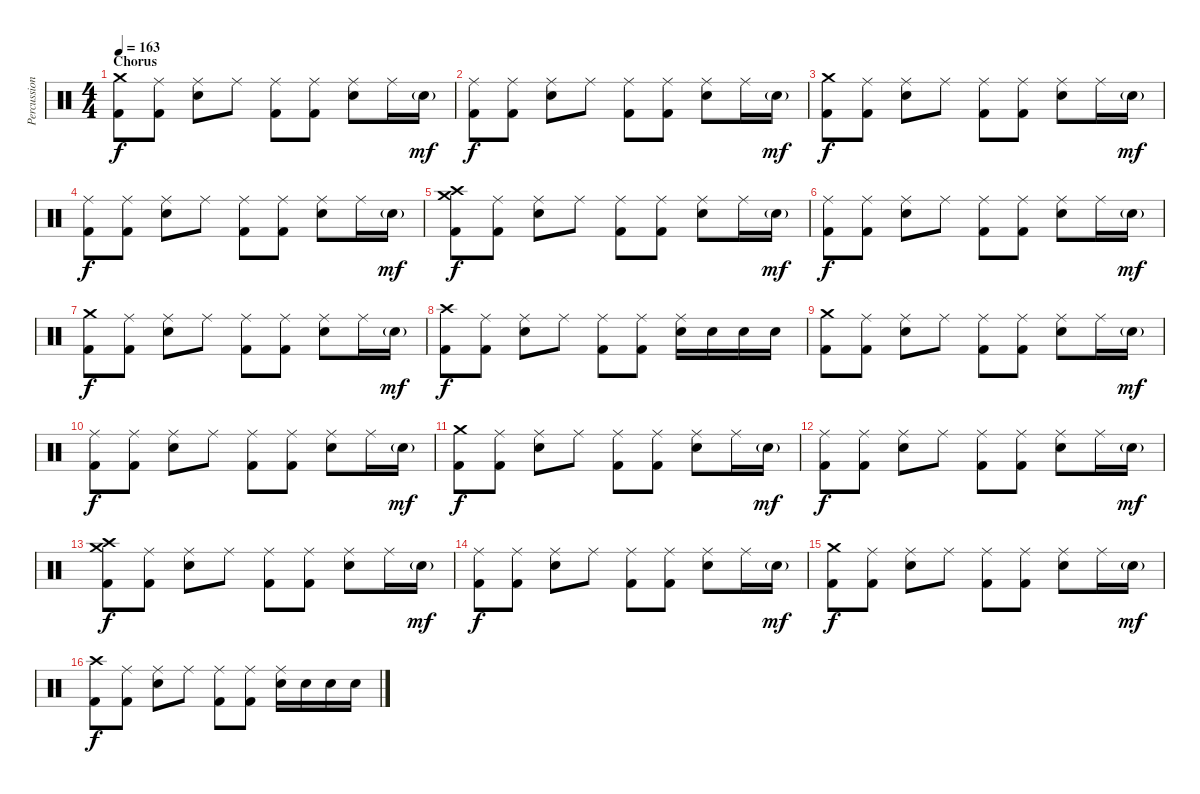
\track ("Percussion" "Percussion") {instrument percussion}
\staff {score}
\articulation defaults
\ts (4 4)
\section ("" "Chorus")
\tempo 163
\clef neutral
\ks c
("Crash medium (hit)" "Kick (hit) 2").8{dy f} ("Ride (middle)" "Kick (hit) 2").8 ("Ride (middle)" "Electric Snare (hit)").8 "Ride (middle)".8 ("Ride (middle)" "Kick (hit) 2").8 ("Ride (middle)" "Kick (hit) 2").8 ("Ride (middle)" "Electric Snare (hit)").8 "Ride (middle)".16 "Electric Snare (hit)"{g}.16{dy mf} |
("Ride (middle)" "Kick (hit) 2").8{dy f} ("Ride (middle)" "Kick (hit) 2").8 ("Ride (middle)" "Electric Snare (hit)").8 "Ride (middle)".8 ("Ride (middle)" "Kick (hit) 2").8 ("Ride (middle)" "Kick (hit) 2").8 ("Ride (middle)" "Electric Snare (hit)").8 "Ride (middle)".16 "Electric Snare (hit)"{g}.16{dy mf} |
("Crash medium (hit)" "Kick (hit) 2").8{dy f} ("Ride (middle)" "Kick (hit) 2").8 ("Ride (middle)" "Electric Snare (hit)").8 "Ride (middle)".8 ("Ride (middle)" "Kick (hit) 2").8 ("Ride (middle)" "Kick (hit) 2").8 ("Ride (middle)" "Electric Snare (hit)").8 "Ride (middle)".16 "Electric Snare (hit)"{g}.16{dy mf} |
("Ride (middle)" "Kick (hit) 2").8{dy f} ("Ride (middle)" "Kick (hit) 2").8 ("Ride (middle)" "Electric Snare (hit)").8 "Ride (middle)".8 ("Ride (middle)" "Kick (hit) 2").8 ("Ride (middle)" "Kick (hit) 2").8 ("Ride (middle)" "Electric Snare (hit)").8 "Ride (middle)".16 "Electric Snare (hit)"{g}.16{dy mf} |
("Crash medium (hit)" "Crash high (hit)" "Kick (hit) 2").8{dy f} ("Ride (middle)" "Kick (hit) 2").8 ("Ride (middle)" "Electric Snare (hit)").8 "Ride (middle)".8 ("Ride (middle)" "Kick (hit) 2").8 ("Ride (middle)" "Kick (hit) 2").8 ("Ride (middle)" "Electric Snare (hit)").8 "Ride (middle)".16 "Electric Snare (hit)"{g}.16{dy mf} |
("Ride (middle)" "Kick (hit) 2").8{dy f} ("Ride (middle)" "Kick (hit) 2").8 ("Ride (middle)" "Electric Snare (hit)").8 "Ride (middle)".8 ("Ride (middle)" "Kick (hit) 2").8 ("Ride (middle)" "Kick (hit) 2").8 ("Ride (middle)" "Electric Snare (hit)").8 "Ride (middle)".16 "Electric Snare (hit)"{g}.16{dy mf} |
("Crash medium (hit)" "Kick (hit) 2").8{dy f} ("Ride (middle)" "Kick (hit) 2").8 ("Ride (middle)" "Electric Snare (hit)").8 "Ride (middle)".8 ("Ride (middle)" "Kick (hit) 2").8 ("Ride (middle)" "Kick (hit) 2").8 ("Ride (middle)" "Electric Snare (hit)").8 "Ride (middle)".16 "Electric Snare (hit)"{g}.16{dy mf} |
("Crash high (hit)" "Kick (hit) 2").8{dy f} ("Ride (middle)" "Kick (hit) 2").8 ("Ride (middle)" "Electric Snare (hit)").8 "Ride (middle)".8 ("Ride (middle)" "Kick (hit) 2").8 ("Ride (middle)" "Kick (hit) 2").8 ("Ride (middle)" "Electric Snare (hit)").16 "Electric Snare (hit)".16 "Electric Snare (hit)".16 "Electric Snare (hit)".16 |
("Crash medium (hit)" "Kick (hit) 2").8 ("Ride (middle)" "Kick (hit) 2").8 ("Ride (middle)" "Electric Snare (hit)").8 "Ride (middle)".8 ("Ride (middle)" "Kick (hit) 2").8 ("Ride (middle)" "Kick (hit) 2").8 ("Ride (middle)" "Electric Snare (hit)").8 "Ride (middle)".16 "Electric Snare (hit)"{g}.16{dy mf} |
("Ride (middle)" "Kick (hit) 2").8{dy f} ("Ride (middle)" "Kick (hit) 2").8 ("Ride (middle)" "Electric Snare (hit)").8 "Ride (middle)".8 ("Ride (middle)" "Kick (hit) 2").8 ("Ride (middle)" "Kick (hit) 2").8 ("Ride (middle)" "Electric Snare (hit)").8 "Ride (middle)".16 "Electric Snare (hit)"{g}.16{dy mf} |
("Crash medium (hit)" "Kick (hit) 2").8{dy f} ("Ride (middle)" "Kick (hit) 2").8 ("Ride (middle)" "Electric Snare (hit)").8 "Ride (middle)".8 ("Ride (middle)" "Kick (hit) 2").8 ("Ride (middle)" "Kick (hit) 2").8 ("Ride (middle)" "Electric Snare (hit)").8 "Ride (middle)".16 "Electric Snare (hit)"{g}.16{dy mf} |
("Ride (middle)" "Kick (hit) 2").8{dy f} ("Ride (middle)" "Kick (hit) 2").8 ("Ride (middle)" "Electric Snare (hit)").8 "Ride (middle)".8 ("Ride (middle)" "Kick (hit) 2").8 ("Ride (middle)" "Kick (hit) 2").8 ("Ride (middle)" "Electric Snare (hit)").8 "Ride (middle)".16 "Electric Snare (hit)"{g}.16{dy mf} |
("Crash medium (hit)" "Crash high (hit)" "Kick (hit) 2").8{dy f} ("Ride (middle)" "Kick (hit) 2").8 ("Ride (middle)" "Electric Snare (hit)").8 "Ride (middle)".8 ("Ride (middle)" "Kick (hit) 2").8 ("Ride (middle)" "Kick (hit) 2").8 ("Ride (middle)" "Electric Snare (hit)").8 "Ride (middle)".16 "Electric Snare (hit)"{g}.16{dy mf} |
("Ride (middle)" "Kick (hit) 2").8{dy f} ("Ride (middle)" "Kick (hit) 2").8 ("Ride (middle)" "Electric Snare (hit)").8 "Ride (middle)".8 ("Ride (middle)" "Kick (hit) 2").8 ("Ride (middle)" "Kick (hit) 2").8 ("Ride (middle)" "Electric Snare (hit)").8 "Ride (middle)".16 "Electric Snare (hit)"{g}.16{dy mf} |
("Crash medium (hit)" "Kick (hit) 2").8{dy f} ("Ride (middle)" "Kick (hit) 2").8 ("Ride (middle)" "Electric Snare (hit)").8 "Ride (middle)".8 ("Ride (middle)" "Kick (hit) 2").8 ("Ride (middle)" "Kick (hit) 2").8 ("Ride (middle)" "Electric Snare (hit)").8 "Ride (middle)".16 "Electric Snare (hit)"{g}.16{dy mf} |
("Crash high (hit)" "Kick (hit) 2").8{dy f} ("Ride (middle)" "Kick (hit) 2").8 ("Ride (middle)" "Electric Snare (hit)").8 "Ride (middle)".8 ("Ride (middle)" "Kick (hit) 2").8 ("Ride (middle)" "Kick (hit) 2").8 ("Ride (middle)" "Electric Snare (hit)").16 "Electric Snare (hit)".16 "Electric Snare (hit)".16 "Electric Snare (hit)".16
